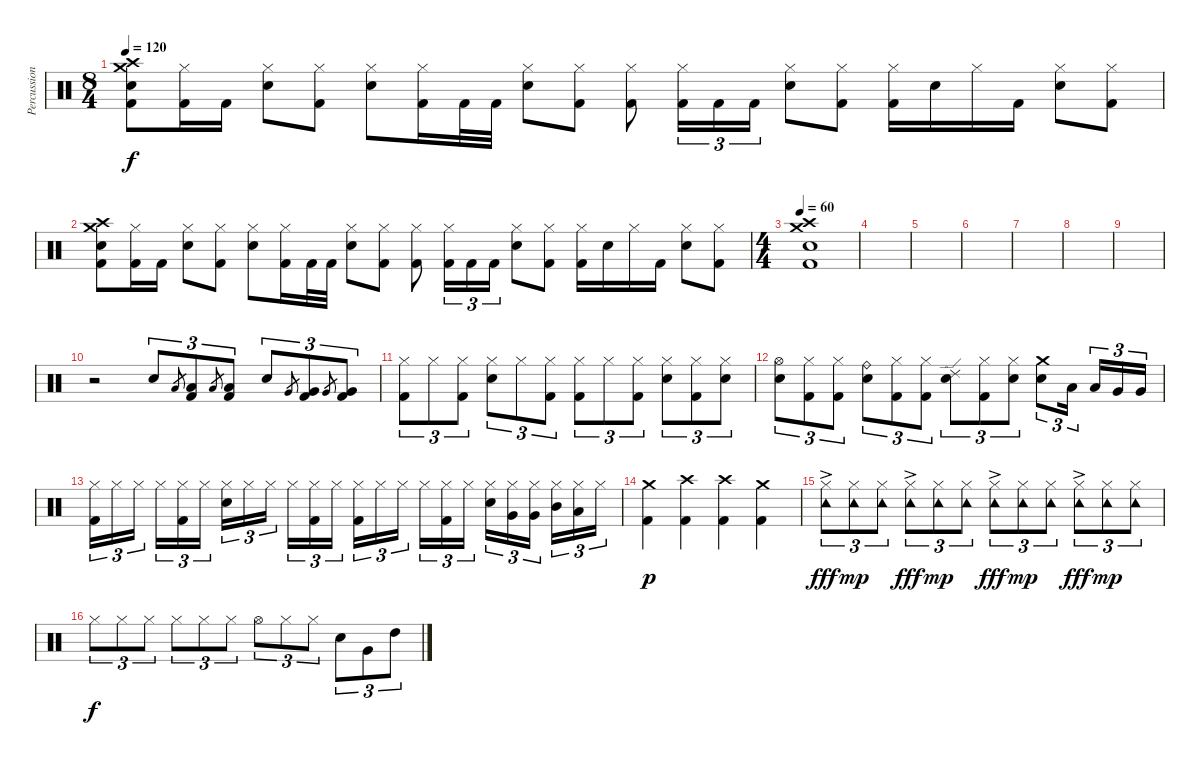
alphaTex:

\track ("Percussion" "Percussion") {instrument percussion}
\staff {score}
\articulation defaults
\ts (8 4)
\tempo 120
\clef neutral
\ks c
("Crash medium (hit)" "Crash high (hit)" "Snare (hit) 2" "Kick (hit) 2").8{dy f} ("Hi-Hat (closed)" "Kick (hit) 2").16 "Kick (hit) 2".16 ("Hi-Hat (closed)" "Snare (hit) 2").8 ("Hi-Hat (closed)" "Kick (hit) 2").8 ("Hi-Hat (closed)" "Snare (hit) 2").8 ("Hi-Hat (closed)" "Kick (hit) 2").16 "Kick (hit) 2".32 "Kick (hit) 2".32 ("Hi-Hat (closed)" "Snare (hit) 2").8 ("Hi-Hat (closed)" "Kick (hit) 2").8 ("Hi-Hat (closed)" "Kick (hit) 2").8 ("Hi-Hat (closed)" "Kick (hit) 2").16{tu (3 2)} "Kick (hit) 2".16{tu (3 2)} "Kick (hit) 2".16{tu (3 2)} ("Hi-Hat (closed)" "Snare (hit) 2").8 ("Hi-Hat (closed)" "Kick (hit) 2").8 ("Hi-Hat (closed)" "Kick (hit) 2").16 "Snare (hit) 2".16 "Hi-Hat (closed)".16 "Kick (hit) 2".16 ("Hi-Hat (closed)" "Snare (hit) 2").8 ("Hi-Hat (closed)" "Kick (hit) 2").8 |
("Crash medium (hit)" "Crash high (hit)" "Snare (hit) 2" "Kick (hit) 2").8 ("Hi-Hat (closed)" "Kick (hit) 2").16 "Kick (hit) 2".16 ("Hi-Hat (closed)" "Snare (hit) 2").8 ("Hi-Hat (closed)" "Kick (hit) 2").8 ("Hi-Hat (closed)" "Snare (hit) 2").8 ("Hi-Hat (closed)" "Kick (hit) 2").16 "Kick (hit) 2".32 "Kick (hit) 2".32 ("Hi-Hat (closed)" "Snare (hit) 2").8 ("Hi-Hat (closed)" "Kick (hit) 2").8 ("Hi-Hat (closed)" "Kick (hit) 2").8 ("Hi-Hat (closed)" "Kick (hit) 2").16{tu (3 2)} "Kick (hit) 2".16{tu (3 2)} "Kick (hit) 2".16{tu (3 2)} ("Hi-Hat (closed)" "Snare (hit) 2").8 ("Hi-Hat (closed)" "Kick (hit) 2").8 ("Hi-Hat (closed)" "Kick (hit) 2").16 "Snare (hit) 2".16 "Hi-Hat (closed)".16 "Kick (hit) 2".16 ("Hi-Hat (closed)" "Snare (hit) 2").8 ("Hi-Hat (closed)" "Kick (hit) 2").8 |
\ts (4 4)
\tempo 60
("Crash medium (hit)" "Crash high (hit)" "Snare (hit) 2" "Kick (hit) 2").1 |
|
|
|
|
|
|
r.2 "Snare (hit) 2".8{tu (3 2)} "Low Tom (hit)".8{gr} ("Low Tom (hit)" "Kick (hit) 2").8{tu (3 2)} "Low Tom (hit)".8{gr} ("Low Tom (hit)" "Kick (hit) 2").8{tu (3 2)} "Snare (hit) 2".8{tu (3 2)} "Very Low Tom (hit)".8{gr} ("Very Low Tom (hit)" "Kick (hit) 2").8{tu (3 2)} "Very Low Tom (hit)".8{gr} ("Very Low Tom (hit)" "Kick (hit) 2").8{tu (3 2)} |
("Hi-Hat (closed)" "Kick (hit) 2").8{tu (3 2)} "Hi-Hat (closed)".8{tu (3 2)} ("Hi-Hat (closed)" "Kick (hit) 2").8{tu (3 2)} ("Hi-Hat (closed)" "Snare (hit) 2").8{tu (3 2)} "Hi-Hat (closed)".8{tu (3 2)} ("Hi-Hat (closed)" "Kick (hit) 2").8{tu (3 2)} ("Hi-Hat (closed)" "Kick (hit) 2").8{tu (3 2)} "Hi-Hat (closed)".8{tu (3 2)} ("Hi-Hat (closed)" "Kick (hit) 2").8{tu (3 2)} ("Hi-Hat (closed)" "Snare (hit) 2").8{tu (3 2)} ("Hi-Hat (closed)" "Kick (hit) 2").8{tu (3 2)} ("Hi-Hat (closed)" "Snare (hit) 2").8{tu (3 2)} |
("Hi-Hat (open)" "Snare (hit) 2").8{tu (3 2)} ("Hi-Hat (closed)" "Kick (hit) 2").8{tu (3 2)} ("Hi-Hat (closed)" "Kick (hit) 2").8{tu (3 2)} ("Ride (bell)" "Snare (hit) 2").8{tu (3 2)} ("Hi-Hat (closed)" "Kick (hit) 2").8{tu (3 2)} ("Hi-Hat (closed)" "Kick (hit) 2").8{tu (3 2)} ("Ride (edge) 2" "Snare (hit) 2").8{tu (3 2)} ("Hi-Hat (closed)" "Kick (hit) 2").8{tu (3 2)} ("Hi-Hat (closed)" "Snare (hit) 2").8{tu (3 2)} ("Crash medium (hit)" "Snare (hit) 2").8{tu (3 2)} "Low Tom (hit)".16{tu (3 2)} "Low Tom (hit)".16{tu (3 2)} "Very Low Tom (hit)".16{tu (3 2)} "Very Low Tom (hit)".16{tu (3 2)} |
("Hi-Hat (closed)" "Kick (hit) 2").16{tu (3 2)} "Hi-Hat (closed)".16{tu (3 2)} "Hi-Hat (closed)".16{tu (3 2)} "Hi-Hat (closed)".16{tu (3 2)} ("Hi-Hat (closed)" "Kick (hit) 2").16{tu (3 2)} "Hi-Hat (closed)".16{tu (3 2)} ("Hi-Hat (closed)" "Snare (hit) 2").16{tu (3 2)} "Hi-Hat (closed)".16{tu (3 2)} "Hi-Hat (closed)".16{tu (3 2)} "Hi-Hat (closed)".16{tu (3 2)} ("Hi-Hat (closed)" "Kick (hit) 2").16{tu (3 2)} "Hi-Hat (closed)".16{tu (3 2)} ("Hi-Hat (closed)" "Kick (hit) 2").16{tu (3 2)} "Hi-Hat (closed)".16{tu (3 2)} "Hi-Hat (closed)".16{tu (3 2)} "Hi-Hat (closed)".16{tu (3 2)} ("Hi-Hat (closed)" "Kick (hit) 2").16{tu (3 2)} "Hi-Hat (closed)".16{tu (3 2)} ("Hi-Hat (closed)" "Snare (hit) 2").16{tu (3 2)} ("Hi-Hat (closed)" "Very Low Tom (hit)").16{tu (3 2)} ("Hi-Hat (closed)" "Very Low Tom (hit)").16{tu (3 2)} ("Hi-Hat (closed)" "Mid Tom (hit)").16{tu (3 2)} ("Hi-Hat (closed)" "Low Tom (hit)").16{tu (3 2)} "Hi-Hat (closed)".16{tu (3 2)} |
("Crash medium (hit)" "Kick (hit) 2").4{dy p} ("Crash high (hit)" "Kick (hit) 2").4 ("Crash high (hit)" "Kick (hit) 2").4 ("Crash medium (hit)" "Kick (hit) 2").4 |
("Tambourine (hit)"{ac} "Hi-Hat (closed)").8{tu (3 2) dy fff} ("Tambourine (hit)" "Hi-Hat (closed)").8{tu (3 2) dy mp} ("Tambourine (hit)" "Hi-Hat (closed)").8{tu (3 2)} ("Tambourine (hit)"{ac} "Hi-Hat (closed)").8{tu (3 2) dy fff} ("Tambourine (hit)" "Hi-Hat (closed)").8{tu (3 2) dy mp} ("Tambourine (hit)" "Hi-Hat (closed)").8{tu (3 2)} ("Tambourine (hit)"{ac} "Hi-Hat (closed)").8{tu (3 2) dy fff} ("Tambourine (hit)" "Hi-Hat (closed)").8{tu (3 2) dy mp} ("Tambourine (hit)" "Hi-Hat (closed)").8{tu (3 2)} ("Tambourine (hit)"{ac} "Hi-Hat (closed)").8{tu (3 2) dy fff} ("Tambourine (hit)" "Hi-Hat (closed)").8{tu (3 2) dy mp} ("Tambourine (hit)" "Hi-Hat (closed)").8{tu (3 2)} |
"Hi-Hat (closed)".8{tu (3 2) dy f} "Hi-Hat (closed)".8{tu (3 2)} "Hi-Hat (closed)".8{tu (3 2)} "Hi-Hat (closed)".8{tu (3 2)} "Hi-Hat (closed)".8{tu (3 2)} "Hi-Hat (closed)".8{tu (3 2)} "Hi-Hat (open)".8{tu (3 2)} "Hi-Hat (closed)".8{tu (3 2)} "Hi-Hat (closed)".8{tu (3 2)} "Snare (hit) 2".8{tu (3 2)} "Very Low Tom (hit)".8{tu (3 2)} "High Tom (hit)".8{tu (3 2)}
